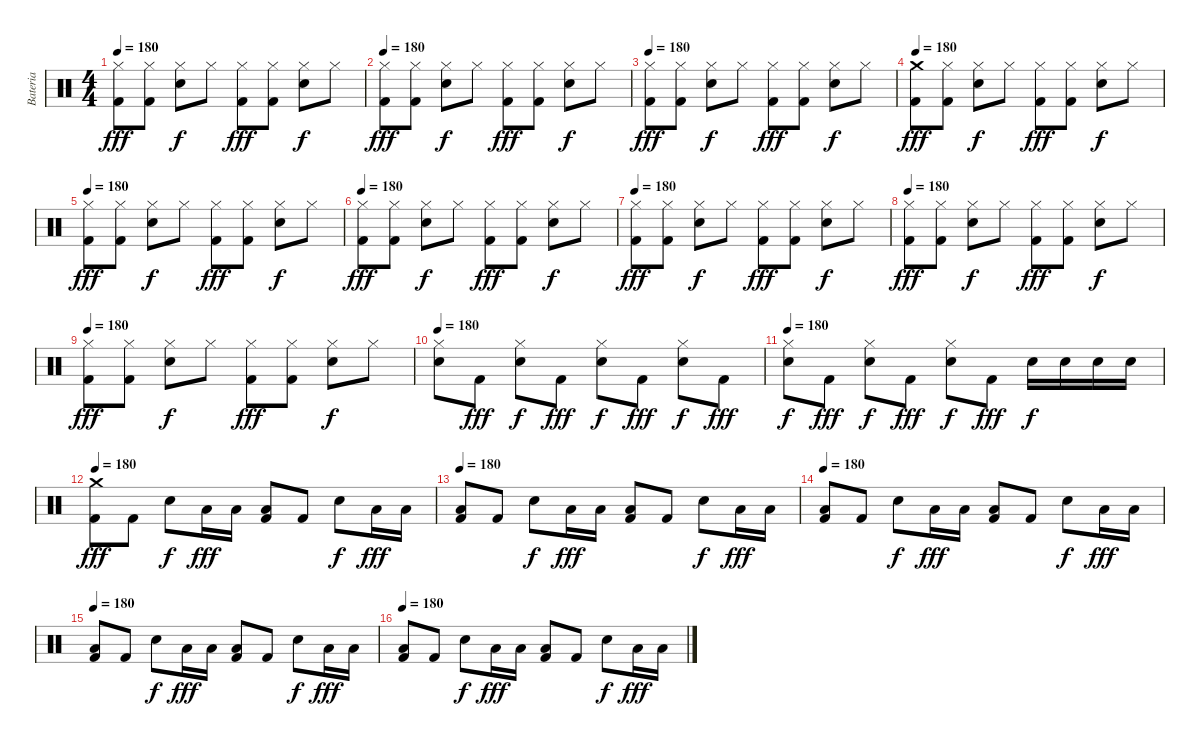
\track ("Bateria" "Bateria") {instrument percussion}
\staff {score}
\articulation defaults
\ts (4 4)
\tempo 180
\clef neutral
\ks c
("Hi-Hat (closed)" "Kick (hit) 2").8{dy fff} ("Hi-Hat (closed)" "Kick (hit) 2").8 ("Hi-Hat (closed)" "Electric Snare (hit)").8{dy f} "Hi-Hat (closed)".8 ("Hi-Hat (closed)" "Kick (hit) 2").8{dy fff} ("Hi-Hat (closed)" "Kick (hit) 2").8 ("Hi-Hat (closed)" "Electric Snare (hit)").8{dy f} "Hi-Hat (closed)".8 |
\tempo 180
("Hi-Hat (closed)" "Kick (hit) 2").8{dy fff} ("Hi-Hat (closed)" "Kick (hit) 2").8 ("Hi-Hat (closed)" "Electric Snare (hit)").8{dy f} "Hi-Hat (closed)".8 ("Hi-Hat (closed)" "Kick (hit) 2").8{dy fff} ("Hi-Hat (closed)" "Kick (hit) 2").8 ("Hi-Hat (closed)" "Electric Snare (hit)").8{dy f} "Hi-Hat (closed)".8 |
\tempo 180
("Hi-Hat (closed)" "Kick (hit) 2").8{dy fff} ("Hi-Hat (closed)" "Kick (hit) 2").8 ("Hi-Hat (closed)" "Electric Snare (hit)").8{dy f} "Hi-Hat (closed)".8 ("Hi-Hat (closed)" "Kick (hit) 2").8{dy fff} ("Hi-Hat (closed)" "Kick (hit) 2").8 ("Hi-Hat (closed)" "Electric Snare (hit)").8{dy f} "Hi-Hat (closed)".8 |
\tempo 180
("Crash medium (hit)" "Kick (hit) 2").8{dy fff} ("Hi-Hat (closed)" "Kick (hit) 2").8 ("Hi-Hat (closed)" "Electric Snare (hit)").8{dy f} "Hi-Hat (closed)".8 ("Hi-Hat (closed)" "Kick (hit) 2").8{dy fff} ("Hi-Hat (closed)" "Kick (hit) 2").8 ("Hi-Hat (closed)" "Electric Snare (hit)").8{dy f} "Hi-Hat (closed)".8 |
\tempo 180
("Hi-Hat (closed)" "Kick (hit) 2").8{dy fff} ("Hi-Hat (closed)" "Kick (hit) 2").8 ("Hi-Hat (closed)" "Electric Snare (hit)").8{dy f} "Hi-Hat (closed)".8 ("Hi-Hat (closed)" "Kick (hit) 2").8{dy fff} ("Hi-Hat (closed)" "Kick (hit) 2").8 ("Hi-Hat (closed)" "Electric Snare (hit)").8{dy f} "Hi-Hat (closed)".8 |
\tempo 180
("Hi-Hat (closed)" "Kick (hit) 2").8{dy fff} ("Hi-Hat (closed)" "Kick (hit) 2").8 ("Hi-Hat (closed)" "Electric Snare (hit)").8{dy f} "Hi-Hat (closed)".8 ("Hi-Hat (closed)" "Kick (hit) 2").8{dy fff} ("Hi-Hat (closed)" "Kick (hit) 2").8 ("Hi-Hat (closed)" "Electric Snare (hit)").8{dy f} "Hi-Hat (closed)".8 |
\tempo 180
("Hi-Hat (closed)" "Kick (hit) 2").8{dy fff} ("Hi-Hat (closed)" "Kick (hit) 2").8 ("Hi-Hat (closed)" "Electric Snare (hit)").8{dy f} "Hi-Hat (closed)".8 ("Hi-Hat (closed)" "Kick (hit) 2").8{dy fff} ("Hi-Hat (closed)" "Kick (hit) 2").8 ("Hi-Hat (closed)" "Electric Snare (hit)").8{dy f} "Hi-Hat (closed)".8 |
\tempo 180
("Hi-Hat (closed)" "Kick (hit) 2").8{dy fff} ("Hi-Hat (closed)" "Kick (hit) 2").8 ("Hi-Hat (closed)" "Electric Snare (hit)").8{dy f} "Hi-Hat (closed)".8 ("Hi-Hat (closed)" "Kick (hit) 2").8{dy fff} ("Hi-Hat (closed)" "Kick (hit) 2").8 ("Hi-Hat (closed)" "Electric Snare (hit)").8{dy f} "Hi-Hat (closed)".8 |
\tempo 180
("Hi-Hat (closed)" "Kick (hit) 2").8{dy fff} ("Hi-Hat (closed)" "Kick (hit) 2").8 ("Hi-Hat (closed)" "Electric Snare (hit)").8{dy f} "Hi-Hat (closed)".8 ("Hi-Hat (closed)" "Kick (hit) 2").8{dy fff} ("Hi-Hat (closed)" "Kick (hit) 2").8 ("Hi-Hat (closed)" "Electric Snare (hit)").8{dy f} "Hi-Hat (closed)".8 |
\tempo 180
("Hi-Hat (closed)" "Electric Snare (hit)").8 "Kick (hit) 2".8{dy fff} ("Hi-Hat (closed)" "Electric Snare (hit)").8{dy f} "Kick (hit) 2".8{dy fff} ("Hi-Hat (closed)" "Electric Snare (hit)").8{dy f} "Kick (hit) 2".8{dy fff} ("Hi-Hat (closed)" "Electric Snare (hit)").8{dy f} "Kick (hit) 2".8{dy fff} |
\tempo 180
("Hi-Hat (closed)" "Electric Snare (hit)").8{dy f} "Kick (hit) 2".8{dy fff} ("Hi-Hat (closed)" "Electric Snare (hit)").8{dy f} "Kick (hit) 2".8{dy fff} ("Hi-Hat (closed)" "Electric Snare (hit)").8{dy f} "Kick (hit) 2".8{dy fff} "Electric Snare (hit)".16{dy f} "Electric Snare (hit)".16 "Electric Snare (hit)".16 "Electric Snare (hit)".16 |
\tempo 180
("Crash medium (hit)" "Kick (hit) 2").8{dy fff} "Kick (hit) 2".8 "Electric Snare (hit)".8{dy f} "Low Tom (hit)".16{dy fff} "Low Tom (hit)".16 ("Low Tom (hit)" "Kick (hit) 2").8 "Kick (hit) 2".8 "Electric Snare (hit)".8{dy f} "Low Tom (hit)".16{dy fff} "Low Tom (hit)".16 |
\tempo 180
("Low Tom (hit)" "Kick (hit) 2").8 "Kick (hit) 2".8 "Electric Snare (hit)".8{dy f} "Low Tom (hit)".16{dy fff} "Low Tom (hit)".16 ("Low Tom (hit)" "Kick (hit) 2").8 "Kick (hit) 2".8 "Electric Snare (hit)".8{dy f} "Low Tom (hit)".16{dy fff} "Low Tom (hit)".16 |
\tempo 180
("Low Tom (hit)" "Kick (hit) 2").8 "Kick (hit) 2".8 "Electric Snare (hit)".8{dy f} "Low Tom (hit)".16{dy fff} "Low Tom (hit)".16 ("Low Tom (hit)" "Kick (hit) 2").8 "Kick (hit) 2".8 "Electric Snare (hit)".8{dy f} "Low Tom (hit)".16{dy fff} "Low Tom (hit)".16 |
\tempo 180
("Low Tom (hit)" "Kick (hit) 2").8 "Kick (hit) 2".8 "Electric Snare (hit)".8{dy f} "Low Tom (hit)".16{dy fff} "Low Tom (hit)".16 ("Low Tom (hit)" "Kick (hit) 2").8 "Kick (hit) 2".8 "Electric Snare (hit)".8{dy f} "Low Tom (hit)".16{dy fff} "Low Tom (hit)".16 |
\tempo 180
("Low Tom (hit)" "Kick (hit) 2").8 "Kick (hit) 2".8 "Electric Snare (hit)".8{dy f} "Low Tom (hit)".16{dy fff} "Low Tom (hit)".16 ("Low Tom (hit)" "Kick (hit) 2").8 "Kick (hit) 2".8 "Electric Snare (hit)".8{dy f} "Low Tom (hit)".16{dy fff} "Low Tom (hit)".16
